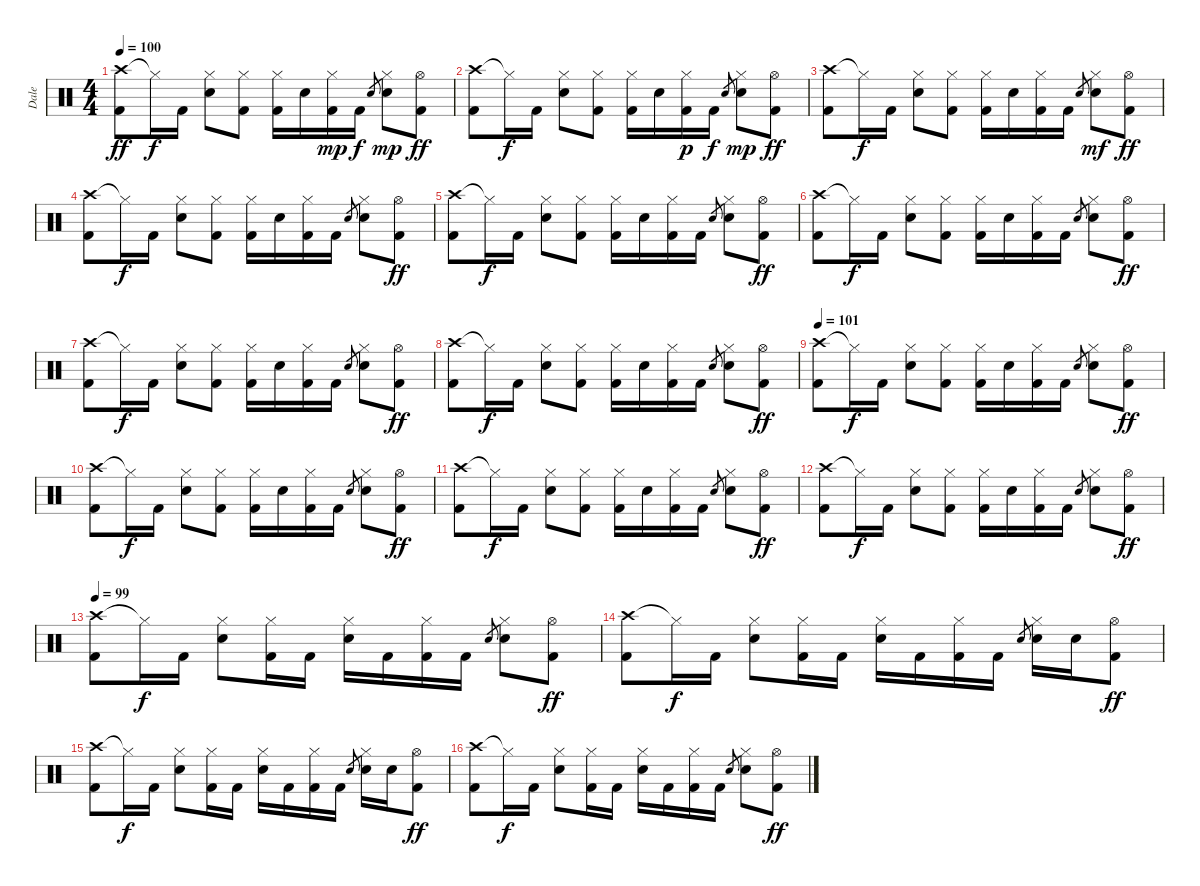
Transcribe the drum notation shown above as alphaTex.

\track ("Dale" "Dale") {instrument percussion}
\staff {score}
\articulation defaults
\ts (4 4)
\tempo 100
\clef neutral
\ks c
("Crash high (hit)" "Kick (hit) 2").8{dy ff} "Hi-Hat (closed)"{t}.16{dy f} "Kick (hit) 2".16 ("Hi-Hat (closed)" "Snare (hit) 2").8 ("Hi-Hat (closed)" "Kick (hit) 2").8 ("Hi-Hat (closed)" "Kick (hit) 2").16 "Snare (hit) 2".16 ("Hi-Hat (closed)" "Kick (hit) 2").16{dy mp} "Kick (hit) 2".16{dy f} "Snare (hit) 2".8{gr} ("Hi-Hat (closed)" "Snare (hit) 2").8{dy mp} ("Hi-Hat (open)" "Kick (hit) 2").8{dy ff} |
("Crash high (hit)" "Kick (hit) 2").8 "Hi-Hat (closed)"{t}.16{dy f} "Kick (hit) 2".16 ("Hi-Hat (closed)" "Snare (hit) 2").8 ("Hi-Hat (closed)" "Kick (hit) 2").8 ("Hi-Hat (closed)" "Kick (hit) 2").16 "Snare (hit) 2".16 ("Hi-Hat (closed)" "Kick (hit) 2").16{dy p} "Kick (hit) 2".16{dy f} "Snare (hit) 2".8{gr} ("Hi-Hat (closed)" "Snare (hit) 2").8{dy mp} ("Hi-Hat (open)" "Kick (hit) 2").8{dy ff} |
("Crash high (hit)" "Kick (hit) 2").8 "Hi-Hat (closed)"{t}.16{dy f} "Kick (hit) 2".16 ("Hi-Hat (closed)" "Snare (hit) 2").8 ("Hi-Hat (closed)" "Kick (hit) 2").8 ("Hi-Hat (closed)" "Kick (hit) 2").16 "Snare (hit) 2".16 ("Hi-Hat (closed)" "Kick (hit) 2").16 "Kick (hit) 2".16 "Snare (hit) 2".8{gr} ("Hi-Hat (closed)" "Snare (hit) 2").8{dy mf} ("Hi-Hat (open)" "Kick (hit) 2").8{dy ff} |
("Crash high (hit)" "Kick (hit) 2").8 "Hi-Hat (closed)"{t}.16{dy f} "Kick (hit) 2".16 ("Hi-Hat (closed)" "Snare (hit) 2").8 ("Hi-Hat (closed)" "Kick (hit) 2").8 ("Hi-Hat (closed)" "Kick (hit) 2").16 "Snare (hit) 2".16 ("Hi-Hat (closed)" "Kick (hit) 2").16 "Kick (hit) 2".16 "Snare (hit) 2".8{gr} ("Hi-Hat (closed)" "Snare (hit) 2").8 ("Hi-Hat (open)" "Kick (hit) 2").8{dy ff} |
("Crash high (hit)" "Kick (hit) 2").8 "Hi-Hat (closed)"{t}.16{dy f} "Kick (hit) 2".16 ("Hi-Hat (closed)" "Snare (hit) 2").8 ("Hi-Hat (closed)" "Kick (hit) 2").8 ("Hi-Hat (closed)" "Kick (hit) 2").16 "Snare (hit) 2".16 ("Hi-Hat (closed)" "Kick (hit) 2").16 "Kick (hit) 2".16 "Snare (hit) 2".8{gr} ("Hi-Hat (closed)" "Snare (hit) 2").8 ("Hi-Hat (open)" "Kick (hit) 2").8{dy ff} |
("Crash high (hit)" "Kick (hit) 2").8 "Hi-Hat (closed)"{t}.16{dy f} "Kick (hit) 2".16 ("Hi-Hat (closed)" "Snare (hit) 2").8 ("Hi-Hat (closed)" "Kick (hit) 2").8 ("Hi-Hat (closed)" "Kick (hit) 2").16 "Snare (hit) 2".16 ("Hi-Hat (closed)" "Kick (hit) 2").16 "Kick (hit) 2".16 "Snare (hit) 2".8{gr} ("Hi-Hat (closed)" "Snare (hit) 2").8 ("Hi-Hat (open)" "Kick (hit) 2").8{dy ff} |
("Crash high (hit)" "Kick (hit) 2").8 "Hi-Hat (closed)"{t}.16{dy f} "Kick (hit) 2".16 ("Hi-Hat (closed)" "Snare (hit) 2").8 ("Hi-Hat (closed)" "Kick (hit) 2").8 ("Hi-Hat (closed)" "Kick (hit) 2").16 "Snare (hit) 2".16 ("Hi-Hat (closed)" "Kick (hit) 2").16 "Kick (hit) 2".16 "Snare (hit) 2".8{gr} ("Hi-Hat (closed)" "Snare (hit) 2").8 ("Hi-Hat (open)" "Kick (hit) 2").8{dy ff} |
("Crash high (hit)" "Kick (hit) 2").8 "Hi-Hat (closed)"{t}.16{dy f} "Kick (hit) 2".16 ("Hi-Hat (closed)" "Snare (hit) 2").8 ("Hi-Hat (closed)" "Kick (hit) 2").8 ("Hi-Hat (closed)" "Kick (hit) 2").16 "Snare (hit) 2".16 ("Hi-Hat (closed)" "Kick (hit) 2").16 "Kick (hit) 2".16 "Snare (hit) 2".8{gr} ("Hi-Hat (closed)" "Snare (hit) 2").8 ("Hi-Hat (open)" "Kick (hit) 2").8{dy ff} |
\tempo 101
("Crash high (hit)" "Kick (hit) 2").8 "Hi-Hat (closed)"{t}.16{dy f} "Kick (hit) 2".16 ("Hi-Hat (closed)" "Snare (hit) 2").8 ("Hi-Hat (closed)" "Kick (hit) 2").8 ("Hi-Hat (closed)" "Kick (hit) 2").16 "Snare (hit) 2".16 ("Hi-Hat (closed)" "Kick (hit) 2").16 "Kick (hit) 2".16 "Snare (hit) 2".8{gr} ("Hi-Hat (closed)" "Snare (hit) 2").8 ("Hi-Hat (open)" "Kick (hit) 2").8{dy ff} |
("Crash high (hit)" "Kick (hit) 2").8 "Hi-Hat (closed)"{t}.16{dy f} "Kick (hit) 2".16 ("Hi-Hat (closed)" "Snare (hit) 2").8 ("Hi-Hat (closed)" "Kick (hit) 2").8 ("Hi-Hat (closed)" "Kick (hit) 2").16 "Snare (hit) 2".16 ("Hi-Hat (closed)" "Kick (hit) 2").16 "Kick (hit) 2".16 "Snare (hit) 2".8{gr} ("Hi-Hat (closed)" "Snare (hit) 2").8 ("Hi-Hat (open)" "Kick (hit) 2").8{dy ff} |
("Crash high (hit)" "Kick (hit) 2").8 "Hi-Hat (closed)"{t}.16{dy f} "Kick (hit) 2".16 ("Hi-Hat (closed)" "Snare (hit) 2").8 ("Hi-Hat (closed)" "Kick (hit) 2").8 ("Hi-Hat (closed)" "Kick (hit) 2").16 "Snare (hit) 2".16 ("Hi-Hat (closed)" "Kick (hit) 2").16 "Kick (hit) 2".16 "Snare (hit) 2".8{gr} ("Hi-Hat (closed)" "Snare (hit) 2").8 ("Hi-Hat (open)" "Kick (hit) 2").8{dy ff} |
("Crash high (hit)" "Kick (hit) 2").8 "Hi-Hat (closed)"{t}.16{dy f} "Kick (hit) 2".16 ("Hi-Hat (closed)" "Snare (hit) 2").8 ("Hi-Hat (closed)" "Kick (hit) 2").8 ("Hi-Hat (closed)" "Kick (hit) 2").16 "Snare (hit) 2".16 ("Hi-Hat (closed)" "Kick (hit) 2").16 "Kick (hit) 2".16 "Snare (hit) 2".8{gr} ("Hi-Hat (closed)" "Snare (hit) 2").8 ("Hi-Hat (open)" "Kick (hit) 2").8{dy ff} |
\tempo 99
("Crash high (hit)" "Kick (hit) 2").8 "Hi-Hat (closed)"{t}.16{dy f} "Kick (hit) 2".16 ("Hi-Hat (closed)" "Snare (hit) 2").8 ("Hi-Hat (closed)" "Kick (hit) 2").16 "Kick (hit) 2".16 ("Hi-Hat (closed)" "Snare (hit) 2").16 "Kick (hit) 2".16 ("Hi-Hat (closed)" "Kick (hit) 2").16 "Kick (hit) 2".16 "Snare (hit) 2".8{gr} ("Hi-Hat (closed)" "Snare (hit) 2").8 ("Hi-Hat (open)" "Kick (hit) 2").8{dy ff} |
("Crash high (hit)" "Kick (hit) 2").8 "Hi-Hat (closed)"{t}.16{dy f} "Kick (hit) 2".16 ("Hi-Hat (closed)" "Snare (hit) 2").8 ("Hi-Hat (closed)" "Kick (hit) 2").16 "Kick (hit) 2".16 ("Hi-Hat (closed)" "Snare (hit) 2").16 "Kick (hit) 2".16 ("Hi-Hat (closed)" "Kick (hit) 2").16 "Kick (hit) 2".16 "Snare (hit) 2".8{gr} ("Hi-Hat (closed)" "Snare (hit) 2").16 "Snare (hit) 2".16 ("Hi-Hat (open)" "Kick (hit) 2").8{dy ff} |
("Crash high (hit)" "Kick (hit) 2").8 "Hi-Hat (closed)"{t}.16{dy f} "Kick (hit) 2".16 ("Hi-Hat (closed)" "Snare (hit) 2").8 ("Hi-Hat (closed)" "Kick (hit) 2").16 "Kick (hit) 2".16 ("Hi-Hat (closed)" "Snare (hit) 2").16 "Kick (hit) 2".16 ("Hi-Hat (closed)" "Kick (hit) 2").16 "Kick (hit) 2".16 "Snare (hit) 2".8{gr} ("Hi-Hat (closed)" "Snare (hit) 2").16 "Snare (hit) 2".16 ("Hi-Hat (open)" "Kick (hit) 2").8{dy ff} |
("Crash high (hit)" "Kick (hit) 2").8 "Hi-Hat (closed)"{t}.16{dy f} "Kick (hit) 2".16 ("Hi-Hat (closed)" "Snare (hit) 2").8 ("Hi-Hat (closed)" "Kick (hit) 2").16 "Kick (hit) 2".16 ("Hi-Hat (closed)" "Snare (hit) 2").16 "Kick (hit) 2".16 ("Hi-Hat (closed)" "Kick (hit) 2").16 "Kick (hit) 2".16 "Snare (hit) 2".8{gr} ("Hi-Hat (closed)" "Snare (hit) 2").8 ("Hi-Hat (open)" "Kick (hit) 2").8{dy ff}
